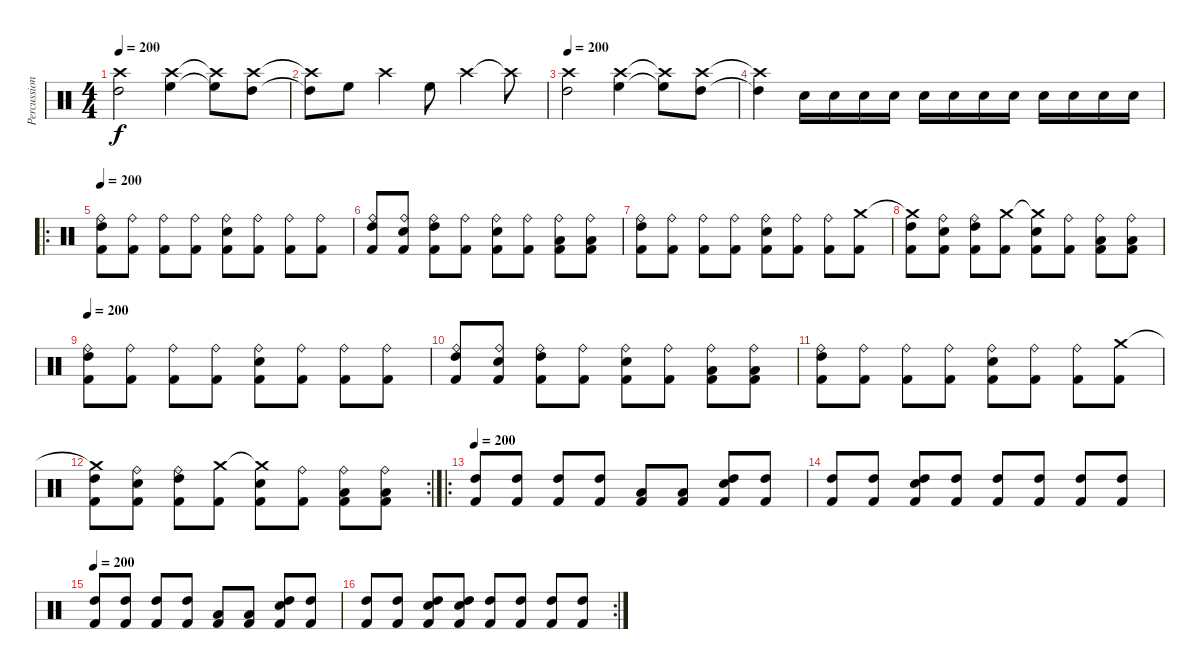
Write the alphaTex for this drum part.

\track ("Percussion" "Percussion") {instrument percussion}
\staff {score}
\articulation defaults
\ts (4 4)
\tempo 200
\clef neutral
\ks c
("Crash high (hit)" "High Tom (hit)").2{dy f} ("Crash high (hit)" "High Floor Tom (hit)").4 ("Crash high (hit)"{t} "High Floor Tom (hit)"{t}).8 ("Crash high (hit)" "High Tom (hit)").8 |
("Crash high (hit)"{t} "High Tom (hit)"{t}).8 "High Floor Tom (hit)".8 "Crash high (hit)".4 "High Floor Tom (hit)".8 "Crash high (hit)".4 "Crash high (hit)"{t}.8 |
\tempo 200
("Crash high (hit)" "High Tom (hit)").2 ("Crash high (hit)" "High Floor Tom (hit)").4 ("Crash high (hit)"{t} "High Floor Tom (hit)"{t}).8 ("Crash high (hit)" "High Tom (hit)").8 |
("Crash high (hit)"{t} "High Tom (hit)"{t}).4 "Snare (hit) 2".16 "Snare (hit) 2".16 "Snare (hit) 2".16 "Snare (hit) 2".16 "Snare (hit) 2".16 "Snare (hit) 2".16 "Snare (hit) 2".16 "Snare (hit) 2".16 "Electric Snare (hit)".16 "Electric Snare (hit)".16 "Electric Snare (hit)".16 "Electric Snare (hit)".16 |
\ro
\tempo 200
("Ride (bell)" "High Tom (hit)" "Kick (hit) 2").8 ("Ride (bell)" "Kick (hit) 2").8 ("Ride (bell)" "Kick (hit) 2").8 ("Ride (bell)" "Kick (hit) 2").8 ("Ride (bell)" "Electric Snare (hit)" "Kick (hit) 2").8 ("Ride (bell)" "Kick (hit) 2").8 ("Ride (bell)" "Kick (hit) 2").8 ("Ride (bell)" "Kick (hit) 2").8 |
("Ride (bell)" "High Tom (hit)" "Kick (hit) 2").8 ("Ride (bell)" "Electric Snare (hit)" "Kick (hit) 2").8 ("Ride (bell)" "High Tom (hit)" "Kick (hit) 2").8 ("Ride (bell)" "Kick (hit) 2").8 ("Ride (bell)" "Electric Snare (hit)" "Kick (hit) 2").8 ("Ride (bell)" "Kick (hit) 2").8 ("Ride (bell)" "Low Tom (hit)" "Kick (hit) 2").8 ("Ride (bell)" "Low Tom (hit)" "Kick (hit) 2").8 |
("Ride (bell)" "High Tom (hit)" "Kick (hit) 2").8 ("Ride (bell)" "Kick (hit) 2").8 ("Ride (bell)" "Kick (hit) 2").8 ("Ride (bell)" "Kick (hit) 2").8 ("Ride (bell)" "Electric Snare (hit)" "Kick (hit) 2").8 ("Ride (bell)" "Kick (hit) 2").8 ("Ride (bell)" "Kick (hit) 2").8 ("Crash medium (hit)" "Kick (hit) 2").8 |
("Crash medium (hit)"{t} "High Tom (hit)" "Kick (hit) 2").8 ("Ride (bell)" "Electric Snare (hit)" "Kick (hit) 2").8 ("Ride (bell)" "High Tom (hit)" "Kick (hit) 2").8 ("Crash medium (hit)" "Kick (hit) 2").8 ("Crash medium (hit)"{t} "Electric Snare (hit)" "Kick (hit) 2").8 ("Ride (bell)" "Kick (hit) 2").8 ("Ride (bell)" "Low Tom (hit)" "Kick (hit) 2").8 ("Ride (bell)" "Low Tom (hit)" "Kick (hit) 2").8 |
\tempo 200
("Ride (bell)" "High Tom (hit)" "Kick (hit) 2").8 ("Ride (bell)" "Kick (hit) 2").8 ("Ride (bell)" "Kick (hit) 2").8 ("Ride (bell)" "Kick (hit) 2").8 ("Ride (bell)" "Electric Snare (hit)" "Kick (hit) 2").8 ("Ride (bell)" "Kick (hit) 2").8 ("Ride (bell)" "Kick (hit) 2").8 ("Ride (bell)" "Kick (hit) 2").8 |
("Ride (bell)" "High Tom (hit)" "Kick (hit) 2").8 ("Ride (bell)" "Electric Snare (hit)" "Kick (hit) 2").8 ("Ride (bell)" "High Tom (hit)" "Kick (hit) 2").8 ("Ride (bell)" "Kick (hit) 2").8 ("Ride (bell)" "Electric Snare (hit)" "Kick (hit) 2").8 ("Ride (bell)" "Kick (hit) 2").8 ("Ride (bell)" "Low Tom (hit)" "Kick (hit) 2").8 ("Ride (bell)" "Low Tom (hit)" "Kick (hit) 2").8 |
("Ride (bell)" "High Tom (hit)" "Kick (hit) 2").8 ("Ride (bell)" "Kick (hit) 2").8 ("Ride (bell)" "Kick (hit) 2").8 ("Ride (bell)" "Kick (hit) 2").8 ("Ride (bell)" "Electric Snare (hit)" "Kick (hit) 2").8 ("Ride (bell)" "Kick (hit) 2").8 ("Ride (bell)" "Kick (hit) 2").8 ("Crash medium (hit)" "Kick (hit) 2").8 |
\rc 2
("Crash medium (hit)"{t} "High Tom (hit)" "Kick (hit) 2").8 ("Ride (bell)" "Electric Snare (hit)" "Kick (hit) 2").8 ("Ride (bell)" "High Tom (hit)" "Kick (hit) 2").8 ("Crash medium (hit)" "Kick (hit) 2").8 ("Crash medium (hit)"{t} "Electric Snare (hit)" "Kick (hit) 2").8 ("Ride (bell)" "Kick (hit) 2").8 ("Ride (bell)" "Low Tom (hit)" "Kick (hit) 2").8 ("Ride (bell)" "Low Tom (hit)" "Kick (hit) 2").8 |
\ro
\tempo 200
("High Tom (hit)" "Kick (hit) 2").8 ("High Tom (hit)" "Kick (hit) 2").8 ("High Tom (hit)" "Kick (hit) 2").8 ("High Tom (hit)" "Kick (hit) 2").8 ("Low Tom (hit)" "Kick (hit) 2").8 ("Low Tom (hit)" "Kick (hit) 2").8 ("High Tom (hit)" "Snare (hit) 2" "Kick (hit) 2").8 ("High Tom (hit)" "Kick (hit) 2").8 |
("High Tom (hit)" "Kick (hit) 2").8 ("High Tom (hit)" "Kick (hit) 2").8 ("High Tom (hit)" "Snare (hit) 2" "Kick (hit) 2").8 ("High Tom (hit)" "Kick (hit) 2").8 ("High Tom (hit)" "Kick (hit) 2").8 ("High Tom (hit)" "Kick (hit) 2").8 ("High Tom (hit)" "Kick (hit) 2").8 ("High Tom (hit)" "Kick (hit) 2").8 |
\tempo 200
("High Tom (hit)" "Kick (hit) 2").8 ("High Tom (hit)" "Kick (hit) 2").8 ("High Tom (hit)" "Kick (hit) 2").8 ("High Tom (hit)" "Kick (hit) 2").8 ("Low Tom (hit)" "Kick (hit) 2").8 ("Low Tom (hit)" "Kick (hit) 2").8 ("High Tom (hit)" "Snare (hit) 2" "Kick (hit) 2").8 ("High Tom (hit)" "Kick (hit) 2").8 |
\rc 2
("High Tom (hit)" "Kick (hit) 2").8 ("High Tom (hit)" "Kick (hit) 2").8 ("High Tom (hit)" "Snare (hit) 2" "Kick (hit) 2").8 ("High Tom (hit)" "Snare (hit) 2" "Kick (hit) 2").8 ("High Tom (hit)" "Kick (hit) 2").8 ("High Tom (hit)" "Kick (hit) 2").8 ("High Tom (hit)" "Kick (hit) 2").8 ("High Tom (hit)" "Kick (hit) 2").8
